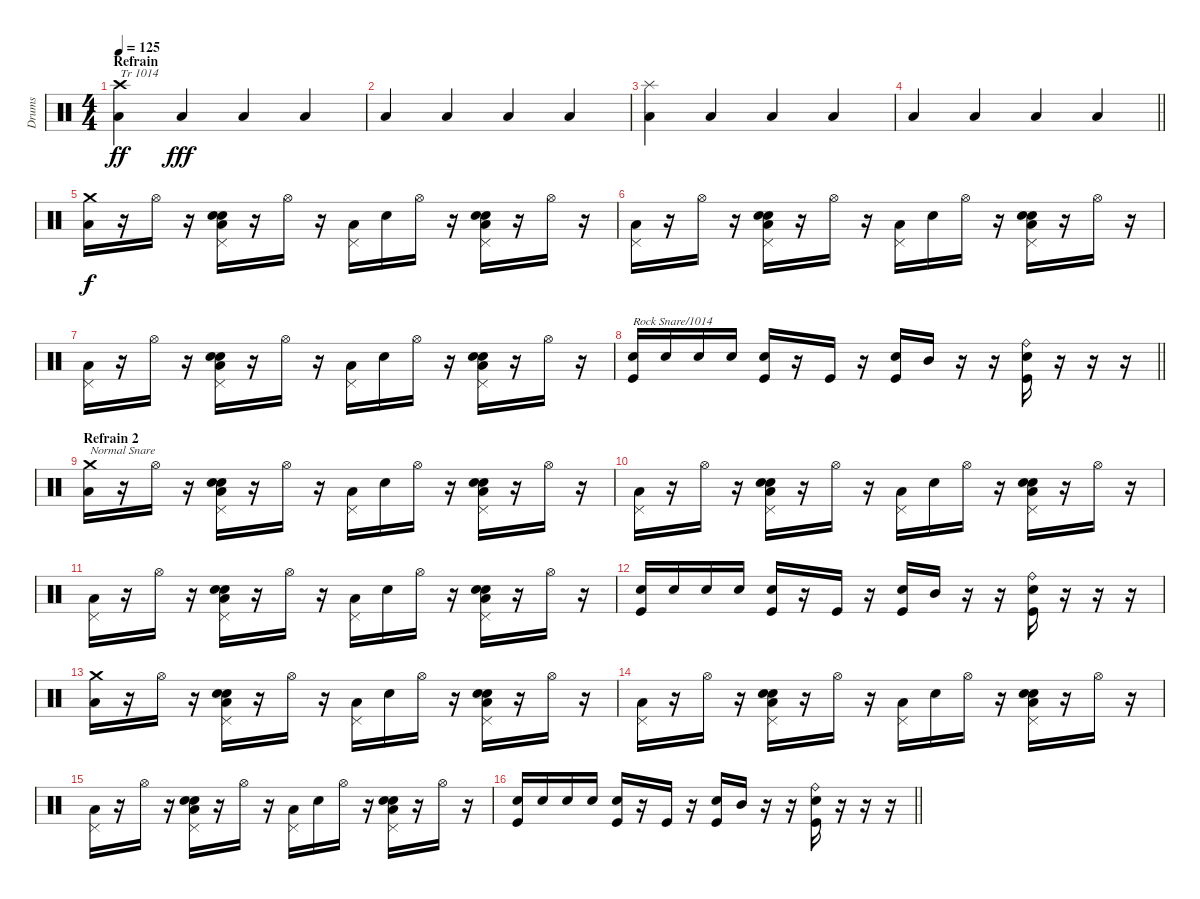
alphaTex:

\track ("Drums" "Drums") {instrument percussion}
\staff {score}
\articulation defaults
\ts (4 4)
\section ("" "Refrain")
\tempo 125
\clef neutral
\ks c
("Crash high (hit)" "Low Tom (hit)").4{txt "Tr 1014" dy ff} "Low Tom (hit)".4{dy fff} "Low Tom (hit)".4 "Low Tom (hit)".4 |
"Low Tom (hit)".4 "Low Tom (hit)".4 "Low Tom (hit)".4 "Low Tom (hit)".4 |
("Splash (hit)" "Low Tom (hit)").4 "Low Tom (hit)".4 "Low Tom (hit)".4 "Low Tom (hit)".4 |
\barLineRight lightlight "Low Tom (hit)".4 "Low Tom (hit)".4 "Low Tom (hit)".4 "Low Tom (hit)".4
|
("Crash medium (hit)" "Low Tom (hit)").16{dy f} r.16 "Hi-Hat (open)".16 r.16 ("Pedal Hi-Hat (hit)" "Hand Clap (hit)" "Snare (hit) 2" "Low Tom (hit)").16 r.16 "Hi-Hat (open)".16 r.16 ("Pedal Hi-Hat (hit)" "Low Tom (hit)").16 "Snare (hit) 2".16 "Hi-Hat (open)".16 r.16 ("Pedal Hi-Hat (hit)" "Hand Clap (hit)" "Snare (hit) 2" "Low Tom (hit)").16 r.16 "Hi-Hat (open)".16 r.16 |
("Pedal Hi-Hat (hit)" "Low Tom (hit)").16 r.16 "Hi-Hat (open)".16 r.16 ("Pedal Hi-Hat (hit)" "Hand Clap (hit)" "Snare (hit) 2" "Low Tom (hit)").16 r.16 "Hi-Hat (open)".16 r.16 ("Pedal Hi-Hat (hit)" "Low Tom (hit)").16 "Snare (hit) 2".16 "Hi-Hat (open)".16 r.16 ("Pedal Hi-Hat (hit)" "Hand Clap (hit)" "Snare (hit) 2" "Low Tom (hit)").16 r.16 "Hi-Hat (open)".16 r.16 |
("Pedal Hi-Hat (hit)" "Low Tom (hit)").16 r.16 "Hi-Hat (open)".16 r.16 ("Pedal Hi-Hat (hit)" "Hand Clap (hit)" "Snare (hit) 2" "Low Tom (hit)").16 r.16 "Hi-Hat (open)".16 r.16 ("Pedal Hi-Hat (hit)" "Low Tom (hit)").16 "Snare (hit) 2".16 "Hi-Hat (open)".16 r.16 ("Pedal Hi-Hat (hit)" "Hand Clap (hit)" "Snare (hit) 2" "Low Tom (hit)").16 r.16 "Hi-Hat (open)".16 r.16 |
\barLineRight lightlight
("Electric Snare (hit)" "Kick (hit)").16{txt "Rock Snare/1014"} "Electric Snare (hit)".16 "Electric Snare (hit)".16 "Electric Snare (hit)".16 ("Electric Snare (hit)" "Kick (hit)").16 r.16 "Kick (hit)".16 r.16 ("Electric Snare (hit)" "Kick (hit)").16 "Mid Tom (hit)".16 r.16 r.16 ("Ride (bell)" "Electric Snare (hit)" "Kick (hit)").16 r.16 r.16 r.16 |
\section ("" "Refrain 2")
("Crash medium (hit)" "Low Tom (hit)").16{txt "Normal Snare"} r.16 "Hi-Hat (open)".16 r.16 ("Pedal Hi-Hat (hit)" "Hand Clap (hit)" "Electric Snare (hit)" "Low Tom (hit)").16 r.16 "Hi-Hat (open)".16 r.16 ("Pedal Hi-Hat (hit)" "Low Tom (hit)").16 "Snare (hit) 2".16 "Hi-Hat (open)".16 r.16 ("Pedal Hi-Hat (hit)" "Hand Clap (hit)" "Snare (hit) 2" "Low Tom (hit)").16 r.16 "Hi-Hat (open)".16 r.16 |
("Pedal Hi-Hat (hit)" "Low Tom (hit)").16 r.16 "Hi-Hat (open)".16 r.16 ("Pedal Hi-Hat (hit)" "Hand Clap (hit)" "Snare (hit) 2" "Low Tom (hit)").16 r.16 "Hi-Hat (open)".16 r.16 ("Pedal Hi-Hat (hit)" "Low Tom (hit)").16 "Snare (hit) 2".16 "Hi-Hat (open)".16 r.16 ("Pedal Hi-Hat (hit)" "Hand Clap (hit)" "Snare (hit) 2" "Low Tom (hit)").16 r.16 "Hi-Hat (open)".16 r.16 |
("Pedal Hi-Hat (hit)" "Low Tom (hit)").16 r.16 "Hi-Hat (open)".16 r.16 ("Pedal Hi-Hat (hit)" "Hand Clap (hit)" "Snare (hit) 2" "Low Tom (hit)").16 r.16 "Hi-Hat (open)".16 r.16 ("Pedal Hi-Hat (hit)" "Low Tom (hit)").16 "Snare (hit) 2".16 "Hi-Hat (open)".16 r.16 ("Pedal Hi-Hat (hit)" "Hand Clap (hit)" "Snare (hit) 2" "Low Tom (hit)").16 r.16 "Hi-Hat (open)".16 r.16 |
("Electric Snare (hit)" "Kick (hit)").16 "Electric Snare (hit)".16 "Electric Snare (hit)".16 "Electric Snare (hit)".16 ("Electric Snare (hit)" "Kick (hit)").16 r.16 "Kick (hit)".16 r.16 ("Electric Snare (hit)" "Kick (hit)").16 "Mid Tom (hit)".16 r.16 r.16 ("Ride (bell)" "Electric Snare (hit)" "Kick (hit)").16 r.16 r.16 r.16 |
("Crash medium (hit)" "Low Tom (hit)").16 r.16 "Hi-Hat (open)".16 r.16 ("Pedal Hi-Hat (hit)" "Hand Clap (hit)" "Electric Snare (hit)" "Low Tom (hit)").16 r.16 "Hi-Hat (open)".16 r.16 ("Pedal Hi-Hat (hit)" "Low Tom (hit)").16 "Snare (hit) 2".16 "Hi-Hat (open)".16 r.16 ("Pedal Hi-Hat (hit)" "Hand Clap (hit)" "Snare (hit) 2" "Low Tom (hit)").16 r.16 "Hi-Hat (open)".16 r.16 |
("Pedal Hi-Hat (hit)" "Low Tom (hit)").16 r.16 "Hi-Hat (open)".16 r.16 ("Pedal Hi-Hat (hit)" "Hand Clap (hit)" "Snare (hit) 2" "Low Tom (hit)").16 r.16 "Hi-Hat (open)".16 r.16 ("Pedal Hi-Hat (hit)" "Low Tom (hit)").16 "Snare (hit) 2".16 "Hi-Hat (open)".16 r.16 ("Pedal Hi-Hat (hit)" "Hand Clap (hit)" "Snare (hit) 2" "Low Tom (hit)").16 r.16 "Hi-Hat (open)".16 r.16 |
("Pedal Hi-Hat (hit)" "Low Tom (hit)").16 r.16 "Hi-Hat (open)".16 r.16 ("Pedal Hi-Hat (hit)" "Hand Clap (hit)" "Snare (hit) 2" "Low Tom (hit)").16 r.16 "Hi-Hat (open)".16 r.16 ("Pedal Hi-Hat (hit)" "Low Tom (hit)").16 "Snare (hit) 2".16 "Hi-Hat (open)".16 r.16 ("Pedal Hi-Hat (hit)" "Hand Clap (hit)" "Snare (hit) 2" "Low Tom (hit)").16 r.16 "Hi-Hat (open)".16 r.16 |
\barLineRight lightlight
("Electric Snare (hit)" "Kick (hit)").16 "Electric Snare (hit)".16 "Electric Snare (hit)".16 "Electric Snare (hit)".16 ("Electric Snare (hit)" "Kick (hit)").16 r.16 "Kick (hit)".16 r.16 ("Electric Snare (hit)" "Kick (hit)").16 "Mid Tom (hit)".16 r.16 r.16 ("Ride (bell)" "Electric Snare (hit)" "Kick (hit)").16 r.16 r.16 r.16
